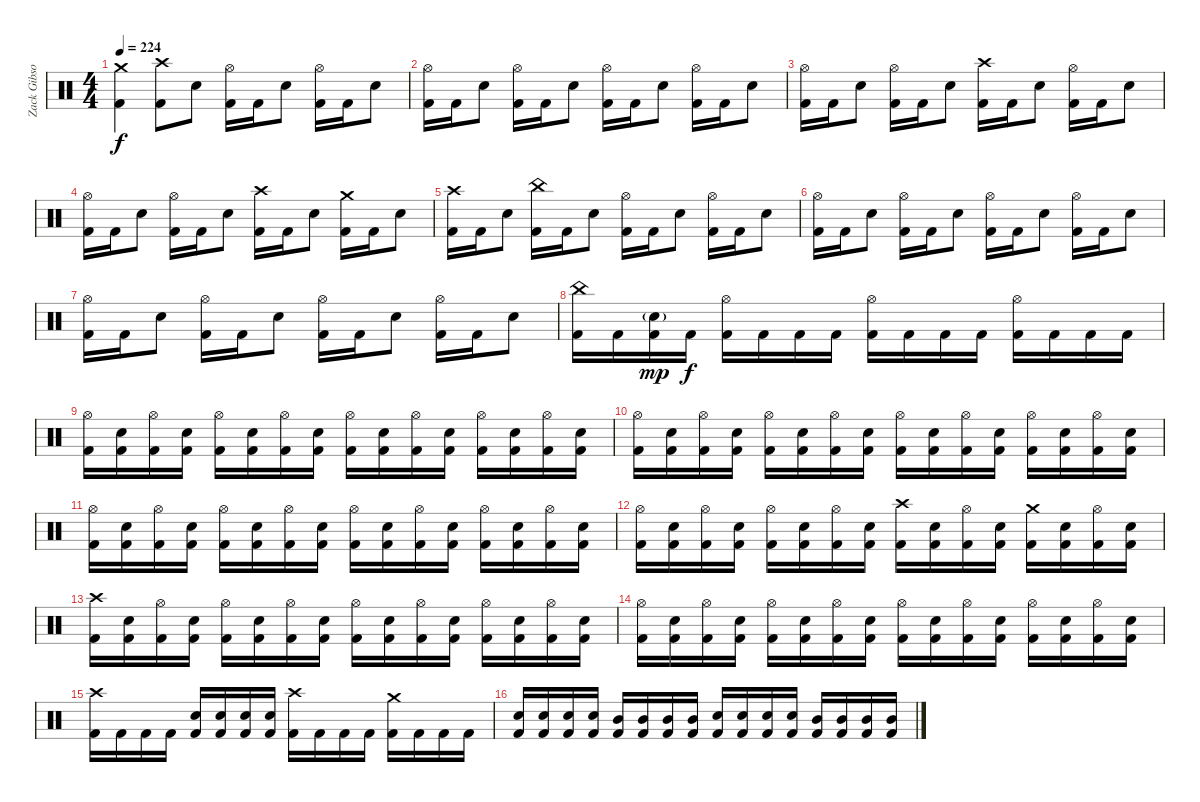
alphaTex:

\track ("Zack Gibson" "Zack Gibso") {instrument percussion}
\staff {score}
\articulation defaults
\ts (4 4)
\tempo 224
\clef neutral
\ks c
("Crash medium (hit)" "Kick (hit) 2").4{dy f} ("Crash high (hit)" "Kick (hit) 2").8 "Snare (hit) 2".8 ("Hi-Hat (open)" "Kick (hit) 2").16 "Kick (hit) 2".16 "Snare (hit) 2".8 ("Hi-Hat (open)" "Kick (hit) 2").16 "Kick (hit) 2".16 "Snare (hit) 2".8 |
("Hi-Hat (open)" "Kick (hit) 2").16 "Kick (hit) 2".16 "Snare (hit) 2".8 ("Hi-Hat (open)" "Kick (hit) 2").16 "Kick (hit) 2".16 "Snare (hit) 2".8 ("Hi-Hat (open)" "Kick (hit) 2").16 "Kick (hit) 2".16 "Snare (hit) 2".8 ("Hi-Hat (open)" "Kick (hit) 2").16 "Kick (hit) 2".16 "Snare (hit) 2".8 |
("Hi-Hat (open)" "Kick (hit) 2").16 "Kick (hit) 2".16 "Snare (hit) 2".8 ("Hi-Hat (open)" "Kick (hit) 2").16 "Kick (hit) 2".16 "Snare (hit) 2".8 ("Crash high (hit)" "Kick (hit) 2").16 "Kick (hit) 2".16 "Snare (hit) 2".8 ("Hi-Hat (open)" "Kick (hit) 2").16 "Kick (hit) 2".16 "Snare (hit) 2".8 |
("Hi-Hat (open)" "Kick (hit) 2").16 "Kick (hit) 2".16 "Snare (hit) 2".8 ("Hi-Hat (open)" "Kick (hit) 2").16 "Kick (hit) 2".16 "Snare (hit) 2".8 ("Crash high (hit)" "Kick (hit) 2").16 "Kick (hit) 2".16 "Snare (hit) 2".8 ("Crash medium (hit)" "Kick (hit) 2").16 "Kick (hit) 2".16 "Snare (hit) 2".8 |
("Crash high (hit)" "Kick (hit) 2").16 "Kick (hit) 2".16 "Snare (hit) 2".8 ("China (hit)" "Kick (hit) 2").16 "Kick (hit) 2".16 "Snare (hit) 2".8 ("Hi-Hat (open)" "Kick (hit) 2").16 "Kick (hit) 2".16 "Snare (hit) 2".8 ("Hi-Hat (open)" "Kick (hit) 2").16 "Kick (hit) 2".16 "Snare (hit) 2".8 |
("Hi-Hat (open)" "Kick (hit) 2").16 "Kick (hit) 2".16 "Snare (hit) 2".8 ("Hi-Hat (open)" "Kick (hit) 2").16 "Kick (hit) 2".16 "Snare (hit) 2".8 ("Hi-Hat (open)" "Kick (hit) 2").16 "Kick (hit) 2".16 "Snare (hit) 2".8 ("Hi-Hat (open)" "Kick (hit) 2").16 "Kick (hit) 2".16 "Snare (hit) 2".8 |
("Hi-Hat (open)" "Kick (hit) 2").16 "Kick (hit) 2".16 "Snare (hit) 2".8 ("Hi-Hat (open)" "Kick (hit) 2").16 "Kick (hit) 2".16 "Snare (hit) 2".8 ("Hi-Hat (open)" "Kick (hit) 2").16 "Kick (hit) 2".16 "Snare (hit) 2".8 ("Hi-Hat (open)" "Kick (hit) 2").16 "Kick (hit) 2".16 "Snare (hit) 2".8 |
("China (hit)" "Kick (hit) 2").16 "Kick (hit) 2".16 ("Snare (hit) 2"{g} "Kick (hit) 2").16{dy mp} "Kick (hit) 2".16{dy f} ("Hi-Hat (open)" "Kick (hit) 2").16 "Kick (hit) 2".16 "Kick (hit) 2".16 "Kick (hit) 2".16 ("Hi-Hat (open)" "Kick (hit) 2").16 "Kick (hit) 2".16 "Kick (hit) 2".16 "Kick (hit) 2".16 ("Hi-Hat (open)" "Kick (hit) 2").16 "Kick (hit) 2".16 "Kick (hit) 2".16 "Kick (hit) 2".16 |
("Hi-Hat (open)" "Kick (hit) 2").16 ("Snare (hit) 2" "Kick (hit) 2").16 ("Hi-Hat (open)" "Kick (hit) 2").16 ("Snare (hit) 2" "Kick (hit) 2").16 ("Hi-Hat (open)" "Kick (hit) 2").16 ("Snare (hit) 2" "Kick (hit) 2").16 ("Hi-Hat (open)" "Kick (hit) 2").16 ("Snare (hit) 2" "Kick (hit) 2").16 ("Hi-Hat (open)" "Kick (hit) 2").16 ("Snare (hit) 2" "Kick (hit) 2").16 ("Hi-Hat (open)" "Kick (hit) 2").16 ("Snare (hit) 2" "Kick (hit) 2").16 ("Hi-Hat (open)" "Kick (hit) 2").16 ("Snare (hit) 2" "Kick (hit) 2").16 ("Hi-Hat (open)" "Kick (hit) 2").16 ("Snare (hit) 2" "Kick (hit) 2").16 |
("Hi-Hat (open)" "Kick (hit) 2").16 ("Snare (hit) 2" "Kick (hit) 2").16 ("Hi-Hat (open)" "Kick (hit) 2").16 ("Snare (hit) 2" "Kick (hit) 2").16 ("Hi-Hat (open)" "Kick (hit) 2").16 ("Snare (hit) 2" "Kick (hit) 2").16 ("Hi-Hat (open)" "Kick (hit) 2").16 ("Snare (hit) 2" "Kick (hit) 2").16 ("Hi-Hat (open)" "Kick (hit) 2").16 ("Snare (hit) 2" "Kick (hit) 2").16 ("Hi-Hat (open)" "Kick (hit) 2").16 ("Snare (hit) 2" "Kick (hit) 2").16 ("Hi-Hat (open)" "Kick (hit) 2").16 ("Snare (hit) 2" "Kick (hit) 2").16 ("Hi-Hat (open)" "Kick (hit) 2").16 ("Snare (hit) 2" "Kick (hit) 2").16 |
("Hi-Hat (open)" "Kick (hit) 2").16 ("Snare (hit) 2" "Kick (hit) 2").16 ("Hi-Hat (open)" "Kick (hit) 2").16 ("Snare (hit) 2" "Kick (hit) 2").16 ("Hi-Hat (open)" "Kick (hit) 2").16 ("Snare (hit) 2" "Kick (hit) 2").16 ("Hi-Hat (open)" "Kick (hit) 2").16 ("Snare (hit) 2" "Kick (hit) 2").16 ("Hi-Hat (open)" "Kick (hit) 2").16 ("Snare (hit) 2" "Kick (hit) 2").16 ("Hi-Hat (open)" "Kick (hit) 2").16 ("Snare (hit) 2" "Kick (hit) 2").16 ("Hi-Hat (open)" "Kick (hit) 2").16 ("Snare (hit) 2" "Kick (hit) 2").16 ("Hi-Hat (open)" "Kick (hit) 2").16 ("Snare (hit) 2" "Kick (hit) 2").16 |
("Hi-Hat (open)" "Kick (hit) 2").16 ("Snare (hit) 2" "Kick (hit) 2").16 ("Hi-Hat (open)" "Kick (hit) 2").16 ("Snare (hit) 2" "Kick (hit) 2").16 ("Hi-Hat (open)" "Kick (hit) 2").16 ("Snare (hit) 2" "Kick (hit) 2").16 ("Hi-Hat (open)" "Kick (hit) 2").16 ("Snare (hit) 2" "Kick (hit) 2").16 ("Crash high (hit)" "Kick (hit) 2").16 ("Snare (hit) 2" "Kick (hit) 2").16 ("Hi-Hat (open)" "Kick (hit) 2").16 ("Snare (hit) 2" "Kick (hit) 2").16 ("Crash medium (hit)" "Kick (hit) 2").16 ("Snare (hit) 2" "Kick (hit) 2").16 ("Hi-Hat (open)" "Kick (hit) 2").16 ("Snare (hit) 2" "Kick (hit) 2").16 |
("Crash high (hit)" "Kick (hit) 2").16 ("Snare (hit) 2" "Kick (hit) 2").16 ("Hi-Hat (open)" "Kick (hit) 2").16 ("Snare (hit) 2" "Kick (hit) 2").16 ("Hi-Hat (open)" "Kick (hit) 2").16 ("Snare (hit) 2" "Kick (hit) 2").16 ("Hi-Hat (open)" "Kick (hit) 2").16 ("Snare (hit) 2" "Kick (hit) 2").16 ("Hi-Hat (open)" "Kick (hit) 2").16 ("Snare (hit) 2" "Kick (hit) 2").16 ("Hi-Hat (open)" "Kick (hit) 2").16 ("Snare (hit) 2" "Kick (hit) 2").16 ("Hi-Hat (open)" "Kick (hit) 2").16 ("Snare (hit) 2" "Kick (hit) 2").16 ("Hi-Hat (open)" "Kick (hit) 2").16 ("Snare (hit) 2" "Kick (hit) 2").16 |
("Hi-Hat (open)" "Kick (hit) 2").16 ("Snare (hit) 2" "Kick (hit) 2").16 ("Hi-Hat (open)" "Kick (hit) 2").16 ("Snare (hit) 2" "Kick (hit) 2").16 ("Hi-Hat (open)" "Kick (hit) 2").16 ("Snare (hit) 2" "Kick (hit) 2").16 ("Hi-Hat (open)" "Kick (hit) 2").16 ("Snare (hit) 2" "Kick (hit) 2").16 ("Hi-Hat (open)" "Kick (hit) 2").16 ("Snare (hit) 2" "Kick (hit) 2").16 ("Hi-Hat (open)" "Kick (hit) 2").16 ("Snare (hit) 2" "Kick (hit) 2").16 ("Hi-Hat (open)" "Kick (hit) 2").16 ("Snare (hit) 2" "Kick (hit) 2").16 ("Hi-Hat (open)" "Kick (hit) 2").16 ("Snare (hit) 2" "Kick (hit) 2").16 |
("Crash high (hit)" "Kick (hit) 2").16 "Kick (hit) 2".16 "Kick (hit) 2".16 "Kick (hit) 2".16 ("Snare (hit) 2" "Kick (hit) 2").16 ("Snare (hit) 2" "Kick (hit) 2").16 ("Snare (hit) 2" "Kick (hit) 2").16 ("Snare (hit) 2" "Kick (hit) 2").16 ("Crash high (hit)" "Kick (hit) 2").16 "Kick (hit) 2".16 "Kick (hit) 2".16 "Kick (hit) 2".16 ("Crash medium (hit)" "Kick (hit) 2").16 "Kick (hit) 2".16 "Kick (hit) 2".16 "Kick (hit) 2".16 |
("Snare (hit) 2" "Kick (hit) 2").16 ("Snare (hit) 2" "Kick (hit) 2").16 ("Snare (hit) 2" "Kick (hit) 2").16 ("Snare (hit) 2" "Kick (hit) 2").16 ("Mid Tom (hit)" "Kick (hit) 2").16 ("Mid Tom (hit)" "Kick (hit) 2").16 ("Mid Tom (hit)" "Kick (hit) 2").16 ("Mid Tom (hit)" "Kick (hit) 2").16 ("Snare (hit) 2" "Kick (hit) 2").16 ("Snare (hit) 2" "Kick (hit) 2").16 ("Snare (hit) 2" "Kick (hit) 2").16 ("Snare (hit) 2" "Kick (hit) 2").16 ("Mid Tom (hit)" "Kick (hit) 2").16 ("Mid Tom (hit)" "Kick (hit) 2").16 ("Mid Tom (hit)" "Kick (hit) 2").16 ("Mid Tom (hit)" "Kick (hit) 2").16
